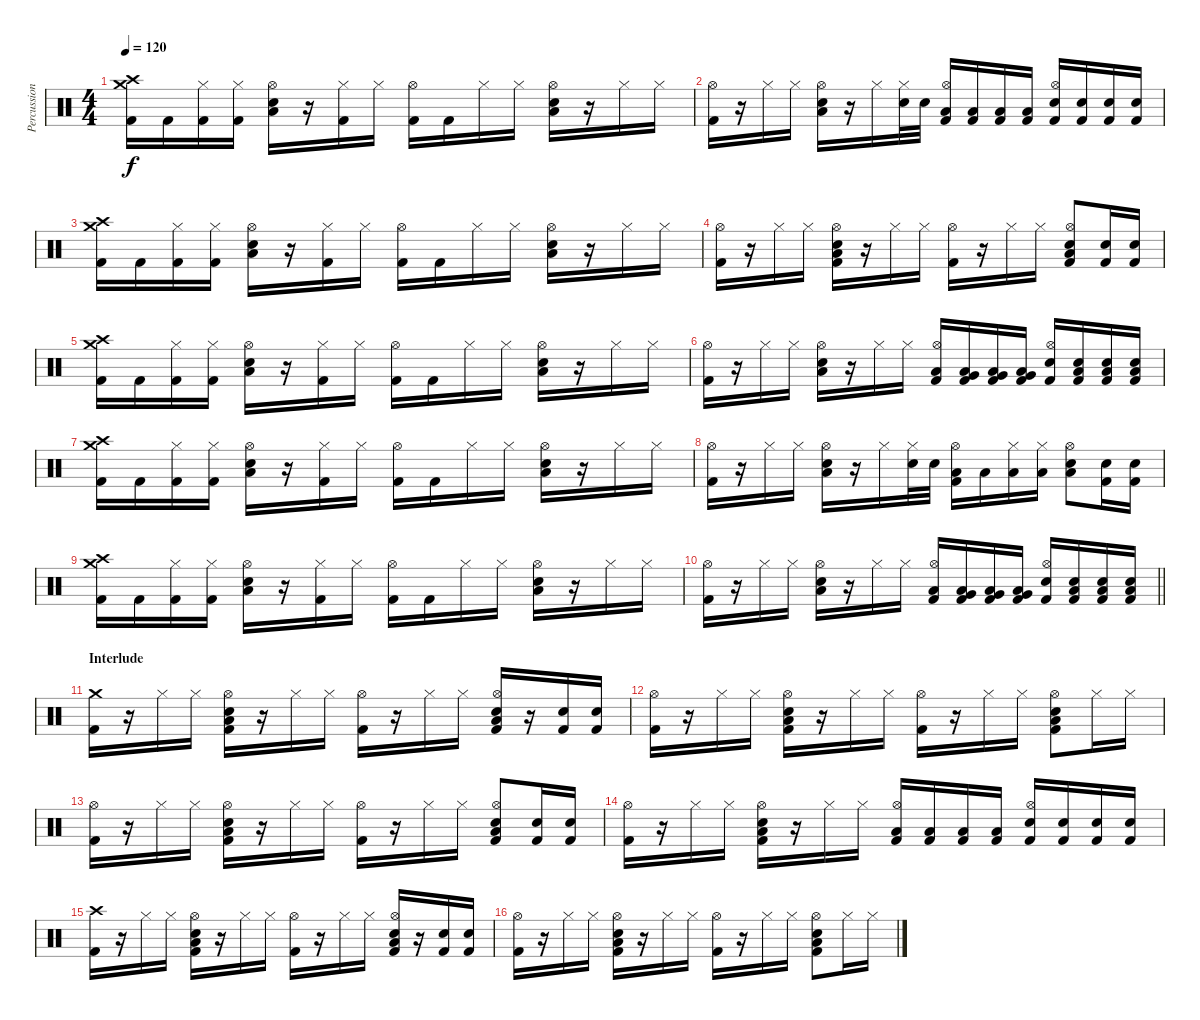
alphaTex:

\track ("Percussion" "Percussion") {instrument percussion}
\staff {score}
\articulation defaults
\ts (4 4)
\tempo 120
\clef neutral
\ks c
("Crash high (hit)" "Crash medium (hit)" "Kick (hit) 2").16{dy f} "Kick (hit) 2".16 ("Hi-Hat (closed)" "Kick (hit) 2").16 ("Hi-Hat (closed)" "Kick (hit) 2").16 ("Hi-Hat (open)" "Electric Snare (hit)" "Low Floor Tom (hit)").16 r.16 ("Hi-Hat (closed)" "Kick (hit) 2").16 "Hi-Hat (closed)".16 ("Hi-Hat (open)" "Kick (hit) 2").16 "Kick (hit) 2".16 "Hi-Hat (closed)".16 "Hi-Hat (closed)".16 ("Hi-Hat (open)" "Electric Snare (hit)" "Low Floor Tom (hit)").16 r.16 "Hi-Hat (closed)".16 "Hi-Hat (closed)".16 |
("Hi-Hat (open)" "Kick (hit) 2").16 r.16 "Hi-Hat (closed)".16 "Hi-Hat (closed)".16 ("Hi-Hat (open)" "Electric Snare (hit)" "Low Floor Tom (hit)").16 r.16 "Hi-Hat (closed)".16 ("Hi-Hat (closed)" "Electric Snare (hit)").32 "Electric Snare (hit)".32 ("Hi-Hat (open)" "Low Floor Tom (hit)" "Kick (hit) 2").16 ("Low Floor Tom (hit)" "Kick (hit) 2").16 ("Low Floor Tom (hit)" "Kick (hit) 2").16 ("Low Floor Tom (hit)" "Kick (hit) 2").16 ("Hi-Hat (open)" "Electric Snare (hit)" "Kick (hit) 2").16 ("Electric Snare (hit)" "Kick (hit) 2").16 ("Electric Snare (hit)" "Kick (hit) 2").16 ("Electric Snare (hit)" "Kick (hit) 2").16 |
("Crash high (hit)" "Crash medium (hit)" "Kick (hit) 2").16 "Kick (hit) 2".16 ("Hi-Hat (closed)" "Kick (hit) 2").16 ("Hi-Hat (closed)" "Kick (hit) 2").16 ("Hi-Hat (open)" "Electric Snare (hit)" "Low Floor Tom (hit)").16 r.16 ("Hi-Hat (closed)" "Kick (hit) 2").16 "Hi-Hat (closed)".16 ("Hi-Hat (open)" "Kick (hit) 2").16 "Kick (hit) 2".16 "Hi-Hat (closed)".16 "Hi-Hat (closed)".16 ("Hi-Hat (open)" "Electric Snare (hit)" "Low Floor Tom (hit)").16 r.16 "Hi-Hat (closed)".16 "Hi-Hat (closed)".16 |
("Hi-Hat (open)" "Kick (hit) 2").16 r.16 "Hi-Hat (closed)".16 "Hi-Hat (closed)".16 ("Hi-Hat (open)" "Electric Snare (hit)" "Low Floor Tom (hit)" "Kick (hit) 2").16 r.16 "Hi-Hat (closed)".16 "Hi-Hat (closed)".16 ("Hi-Hat (open)" "Kick (hit) 2").16 r.16 "Hi-Hat (closed)".16 "Hi-Hat (closed)".16 ("Hi-Hat (open)" "Electric Snare (hit)" "Low Floor Tom (hit)" "Kick (hit) 2").8 ("Electric Snare (hit)" "Kick (hit) 2").16 ("Electric Snare (hit)" "Kick (hit) 2").16 |
("Crash high (hit)" "Crash medium (hit)" "Kick (hit) 2").16 "Kick (hit) 2".16 ("Hi-Hat (closed)" "Kick (hit) 2").16 ("Hi-Hat (closed)" "Kick (hit) 2").16 ("Hi-Hat (open)" "Electric Snare (hit)" "Low Floor Tom (hit)").16 r.16 ("Hi-Hat (closed)" "Kick (hit) 2").16 "Hi-Hat (closed)".16 ("Hi-Hat (open)" "Kick (hit) 2").16 "Kick (hit) 2".16 "Hi-Hat (closed)".16 "Hi-Hat (closed)".16 ("Hi-Hat (open)" "Electric Snare (hit)" "Low Floor Tom (hit)").16 r.16 "Hi-Hat (closed)".16 "Hi-Hat (closed)".16 |
("Hi-Hat (open)" "Kick (hit) 2").16 r.16 "Hi-Hat (closed)".16 "Hi-Hat (closed)".16 ("Hi-Hat (open)" "Electric Snare (hit)" "Low Floor Tom (hit)").16 r.16 "Hi-Hat (closed)".16 "Hi-Hat (closed)".16 ("Hi-Hat (open)" "Low Floor Tom (hit)" "Kick (hit) 2").16 ("Low Floor Tom (hit)" "Very Low Tom (hit)" "Kick (hit) 2").16 ("Low Floor Tom (hit)" "Very Low Tom (hit)" "Kick (hit) 2").16 ("Low Floor Tom (hit)" "Very Low Tom (hit)" "Kick (hit) 2").16 ("Hi-Hat (open)" "Electric Snare (hit)" "Kick (hit) 2").16 ("Electric Snare (hit)" "Low Floor Tom (hit)" "Kick (hit) 2").16 ("Electric Snare (hit)" "Low Floor Tom (hit)" "Kick (hit) 2").16 ("Electric Snare (hit)" "Low Floor Tom (hit)" "Kick (hit) 2").16 |
("Crash high (hit)" "Crash medium (hit)" "Kick (hit) 2").16 "Kick (hit) 2".16 ("Hi-Hat (closed)" "Kick (hit) 2").16 ("Hi-Hat (closed)" "Kick (hit) 2").16 ("Hi-Hat (open)" "Electric Snare (hit)" "Low Floor Tom (hit)").16 r.16 ("Hi-Hat (closed)" "Kick (hit) 2").16 "Hi-Hat (closed)".16 ("Hi-Hat (open)" "Kick (hit) 2").16 "Kick (hit) 2".16 "Hi-Hat (closed)".16 "Hi-Hat (closed)".16 ("Hi-Hat (open)" "Electric Snare (hit)" "Low Floor Tom (hit)").16 r.16 "Hi-Hat (closed)".16 "Hi-Hat (closed)".16 |
("Hi-Hat (open)" "Kick (hit) 2").16 r.16 "Hi-Hat (closed)".16 "Hi-Hat (closed)".16 ("Hi-Hat (open)" "Electric Snare (hit)" "Low Floor Tom (hit)").16 r.16 "Hi-Hat (closed)".16 ("Hi-Hat (closed)" "Electric Snare (hit)").32 "Electric Snare (hit)".32 ("Hi-Hat (open)" "Low Floor Tom (hit)" "Kick (hit) 2").16 "Low Floor Tom (hit)".16 ("Hi-Hat (closed)" "Low Floor Tom (hit)").16 ("Hi-Hat (closed)" "Low Floor Tom (hit)").16 ("Hi-Hat (open)" "Electric Snare (hit)" "Low Floor Tom (hit)").8 ("Electric Snare (hit)" "Kick (hit) 2").16 ("Electric Snare (hit)" "Kick (hit) 2").16 |
("Crash high (hit)" "Crash medium (hit)" "Kick (hit) 2").16 "Kick (hit) 2".16 ("Hi-Hat (closed)" "Kick (hit) 2").16 ("Hi-Hat (closed)" "Kick (hit) 2").16 ("Hi-Hat (open)" "Electric Snare (hit)" "Low Floor Tom (hit)").16 r.16 ("Hi-Hat (closed)" "Kick (hit) 2").16 "Hi-Hat (closed)".16 ("Hi-Hat (open)" "Kick (hit) 2").16 "Kick (hit) 2".16 "Hi-Hat (closed)".16 "Hi-Hat (closed)".16 ("Hi-Hat (open)" "Electric Snare (hit)" "Low Floor Tom (hit)").16 r.16 "Hi-Hat (closed)".16 "Hi-Hat (closed)".16 |
\barLineRight lightlight
("Hi-Hat (open)" "Kick (hit) 2").16 r.16 "Hi-Hat (closed)".16 "Hi-Hat (closed)".16 ("Hi-Hat (open)" "Electric Snare (hit)" "Low Floor Tom (hit)").16 r.16 "Hi-Hat (closed)".16 "Hi-Hat (closed)".16 ("Hi-Hat (open)" "Low Floor Tom (hit)" "Kick (hit) 2").16 ("Low Floor Tom (hit)" "Very Low Tom (hit)" "Kick (hit) 2").16 ("Low Floor Tom (hit)" "Very Low Tom (hit)" "Kick (hit) 2").16 ("Low Floor Tom (hit)" "Very Low Tom (hit)" "Kick (hit) 2").16 ("Hi-Hat (open)" "Electric Snare (hit)" "Kick (hit) 2").16 ("Electric Snare (hit)" "Low Floor Tom (hit)" "Kick (hit) 2").16 ("Electric Snare (hit)" "Low Floor Tom (hit)" "Kick (hit) 2").16 ("Electric Snare (hit)" "Low Floor Tom (hit)" "Kick (hit) 2").16 |
\section ("" "Interlude")
("Crash medium (hit)" "Kick (hit) 2").16 r.16 "Hi-Hat (closed)".16 "Hi-Hat (closed)".16 ("Hi-Hat (open)" "Electric Snare (hit)" "Low Floor Tom (hit)" "Kick (hit) 2").16 r.16 "Hi-Hat (closed)".16 "Hi-Hat (closed)".16 ("Hi-Hat (open)" "Kick (hit) 2").16 r.16 "Hi-Hat (closed)".16 "Hi-Hat (closed)".16 ("Hi-Hat (open)" "Electric Snare (hit)" "Low Floor Tom (hit)" "Kick (hit) 2").16 r.16 ("Electric Snare (hit)" "Kick (hit) 2").16 ("Electric Snare (hit)" "Kick (hit) 2").16 |
("Hi-Hat (open)" "Kick (hit) 2").16 r.16 "Hi-Hat (closed)".16 "Hi-Hat (closed)".16 ("Hi-Hat (open)" "Electric Snare (hit)" "Low Floor Tom (hit)" "Kick (hit) 2").16 r.16 "Hi-Hat (closed)".16 "Hi-Hat (closed)".16 ("Hi-Hat (open)" "Kick (hit) 2").16 r.16 "Hi-Hat (closed)".16 "Hi-Hat (closed)".16 ("Hi-Hat (open)" "Electric Snare (hit)" "Low Floor Tom (hit)" "Kick (hit) 2").8 "Hi-Hat (closed)".16 "Hi-Hat (closed)".16 |
("Hi-Hat (open)" "Kick (hit) 2").16 r.16 "Hi-Hat (closed)".16 "Hi-Hat (closed)".16 ("Hi-Hat (open)" "Electric Snare (hit)" "Low Floor Tom (hit)" "Kick (hit) 2").16 r.16 "Hi-Hat (closed)".16 "Hi-Hat (closed)".16 ("Hi-Hat (open)" "Kick (hit) 2").16 r.16 "Hi-Hat (closed)".16 "Hi-Hat (closed)".16 ("Hi-Hat (open)" "Electric Snare (hit)" "Low Floor Tom (hit)" "Kick (hit) 2").8 ("Electric Snare (hit)" "Kick (hit) 2").16 ("Electric Snare (hit)" "Kick (hit) 2").16 |
("Hi-Hat (open)" "Kick (hit) 2").16 r.16 "Hi-Hat (closed)".16 "Hi-Hat (closed)".16 ("Hi-Hat (open)" "Electric Snare (hit)" "Low Floor Tom (hit)" "Kick (hit) 2").16 r.16 "Hi-Hat (closed)".16 "Hi-Hat (closed)".16 ("Hi-Hat (open)" "Low Floor Tom (hit)" "Kick (hit) 2").16 ("Low Floor Tom (hit)" "Kick (hit) 2").16 ("Low Floor Tom (hit)" "Kick (hit) 2").16 ("Low Floor Tom (hit)" "Kick (hit) 2").16 ("Hi-Hat (open)" "Electric Snare (hit)" "Kick (hit) 2").16 ("Electric Snare (hit)" "Kick (hit) 2").16 ("Electric Snare (hit)" "Kick (hit) 2").16 ("Electric Snare (hit)" "Kick (hit) 2").16 |
("Crash high (hit)" "Kick (hit) 2").16 r.16 "Hi-Hat (closed)".16 "Hi-Hat (closed)".16 ("Hi-Hat (open)" "Electric Snare (hit)" "Low Floor Tom (hit)" "Kick (hit) 2").16 r.16 "Hi-Hat (closed)".16 "Hi-Hat (closed)".16 ("Hi-Hat (open)" "Kick (hit) 2").16 r.16 "Hi-Hat (closed)".16 "Hi-Hat (closed)".16 ("Hi-Hat (open)" "Electric Snare (hit)" "Low Floor Tom (hit)" "Kick (hit) 2").16 r.16 ("Electric Snare (hit)" "Kick (hit) 2").16 ("Electric Snare (hit)" "Kick (hit) 2").16 |
("Hi-Hat (open)" "Kick (hit) 2").16 r.16 "Hi-Hat (closed)".16 "Hi-Hat (closed)".16 ("Hi-Hat (open)" "Electric Snare (hit)" "Low Floor Tom (hit)" "Kick (hit) 2").16 r.16 "Hi-Hat (closed)".16 "Hi-Hat (closed)".16 ("Hi-Hat (open)" "Kick (hit) 2").16 r.16 "Hi-Hat (closed)".16 "Hi-Hat (closed)".16 ("Hi-Hat (open)" "Electric Snare (hit)" "Low Floor Tom (hit)" "Kick (hit) 2").8 "Hi-Hat (closed)".16 "Hi-Hat (closed)".16
